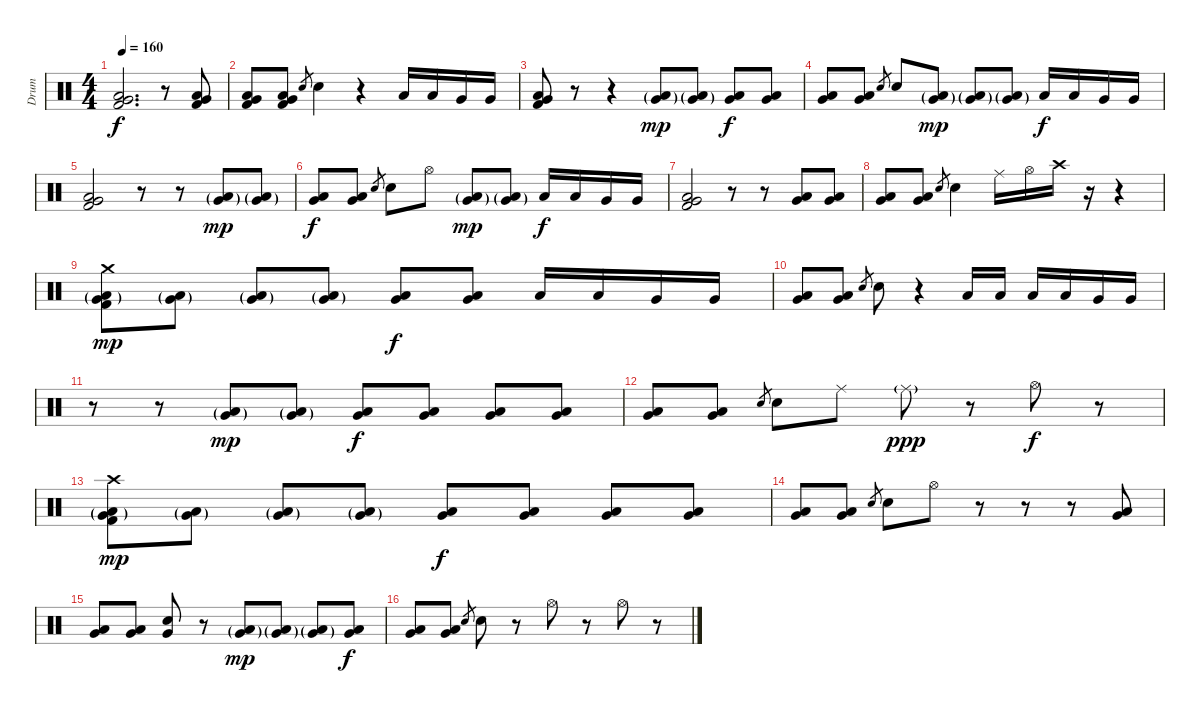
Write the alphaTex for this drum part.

\track ("Drum" "Drum") {instrument percussion}
\staff {score}
\articulation defaults
\ts (4 4)
\tempo 160
\clef neutral
\ks c
("Low Floor Tom (hit)" "Very Low Tom (hit)" "Kick (hit) 2").2{d dy f} r.8 ("Low Floor Tom (hit)" "Very Low Tom (hit)" "Kick (hit) 2").8 |
("Low Floor Tom (hit)" "Very Low Tom (hit)" "Kick (hit) 2").8 ("Low Floor Tom (hit)" "Very Low Tom (hit)" "Kick (hit) 2").8 "Electric Snare (hit)".8{gr} "Electric Snare (hit)".4 r.4 "Low Tom (hit)".16 "Low Tom (hit)".16 "Very Low Tom (hit)".16 "Very Low Tom (hit)".16 |
("Low Floor Tom (hit)" "Very Low Tom (hit)" "Kick (hit) 2").8 r.8 r.4 ("Low Tom (hit)"{g} "Very Low Tom (hit)"{g}).8{dy mp} ("Low Tom (hit)"{g} "Very Low Tom (hit)"{g}).8 ("Low Tom (hit)" "Very Low Tom (hit)").8{dy f} ("Low Tom (hit)" "Very Low Tom (hit)").8 |
("Low Tom (hit)" "Very Low Tom (hit)").8 ("Low Tom (hit)" "Very Low Tom (hit)").8 "Electric Snare (hit)".8{gr} "Electric Snare (hit)".8 ("Low Tom (hit)"{g} "Very Low Tom (hit)"{g}).8{dy mp} ("Low Tom (hit)"{g} "Very Low Tom (hit)"{g}).8 ("Low Tom (hit)"{g} "Very Low Tom (hit)"{g}).8 "Low Tom (hit)".16{dy f} "Low Tom (hit)".16 "Very Low Tom (hit)".16 "Very Low Tom (hit)".16 |
("Low Floor Tom (hit)" "Very Low Tom (hit)" "Kick (hit) 2").2 r.8 r.8 ("Low Tom (hit)"{g} "Very Low Tom (hit)"{g}).8{dy mp} ("Low Tom (hit)"{g} "Very Low Tom (hit)"{g}).8 |
("Low Tom (hit)" "Very Low Tom (hit)").8{dy f} ("Low Tom (hit)" "Very Low Tom (hit)").8 "Electric Snare (hit)".8{gr} "Electric Snare (hit)".8 "Hi-Hat (open)".8 ("Low Tom (hit)"{g} "Very Low Tom (hit)"{g}).8{dy mp} ("Low Tom (hit)"{g} "Very Low Tom (hit)"{g}).8 "Low Tom (hit)".16{dy f} "Low Tom (hit)".16 "Very Low Tom (hit)".16 "Very Low Tom (hit)".16 |
("Low Floor Tom (hit)" "Very Low Tom (hit)" "Kick (hit) 2").2 r.8 r.8 ("Low Tom (hit)" "Very Low Tom (hit)").8 ("Low Tom (hit)" "Very Low Tom (hit)").8 |
("Low Tom (hit)" "Very Low Tom (hit)").8 ("Low Tom (hit)" "Very Low Tom (hit)").8 "Electric Snare (hit)".8{gr} "Electric Snare (hit)".4 "Ride (middle)".16 "Hi-Hat (open)".16 "Crash high (hit)".16 r.16 r.4 |
("Crash medium (hit)" "Low Tom (hit)"{g} "Very Low Tom (hit)"{g} "Kick (hit) 2").8{dy mp} ("Low Tom (hit)"{g} "Very Low Tom (hit)"{g}).8 ("Low Tom (hit)"{g} "Very Low Tom (hit)"{g}).8 ("Low Tom (hit)"{g} "Very Low Tom (hit)"{g}).8 ("Low Tom (hit)" "Very Low Tom (hit)").8{dy f} ("Low Tom (hit)" "Very Low Tom (hit)").8 "Low Tom (hit)".16 "Low Tom (hit)".16 "Very Low Tom (hit)".16 "Very Low Tom (hit)".16 |
("Low Tom (hit)" "Very Low Tom (hit)").8 ("Low Tom (hit)" "Very Low Tom (hit)").8 "Electric Snare (hit)".8{gr} "Electric Snare (hit)".8 r.4 "Low Tom (hit)".16 "Low Tom (hit)".16 "Low Tom (hit)".16 "Low Tom (hit)".16 "Very Low Tom (hit)".16 "Very Low Tom (hit)".16 |
r.8 r.8 ("Low Tom (hit)"{g} "Very Low Tom (hit)"{g}).8{dy mp} ("Low Tom (hit)"{g} "Very Low Tom (hit)"{g}).8 ("Low Tom (hit)" "Very Low Tom (hit)").8{dy f} ("Low Tom (hit)" "Very Low Tom (hit)").8 ("Low Tom (hit)" "Very Low Tom (hit)").8 ("Low Tom (hit)" "Very Low Tom (hit)").8 |
("Low Tom (hit)" "Very Low Tom (hit)").8 ("Low Tom (hit)" "Very Low Tom (hit)").8 "Electric Snare (hit)".8{gr} "Electric Snare (hit)".8 "Ride (middle)".8 "Ride (middle)"{g}.8{dy ppp} r.8 "Hi-Hat (open)".8{dy f} r.8 |
("Crash high (hit)" "Low Tom (hit)"{g} "Very Low Tom (hit)"{g} "Kick (hit) 2").8{dy mp} ("Low Tom (hit)"{g} "Very Low Tom (hit)"{g}).8 ("Low Tom (hit)"{g} "Very Low Tom (hit)"{g}).8 ("Low Tom (hit)"{g} "Very Low Tom (hit)"{g}).8 ("Low Tom (hit)" "Very Low Tom (hit)").8{dy f} ("Low Tom (hit)" "Very Low Tom (hit)").8 ("Low Tom (hit)" "Very Low Tom (hit)").8 ("Low Tom (hit)" "Very Low Tom (hit)").8 |
("Low Tom (hit)" "Very Low Tom (hit)").8 ("Low Tom (hit)" "Very Low Tom (hit)").8 "Electric Snare (hit)".8{gr} "Electric Snare (hit)".8 "Hi-Hat (open)".8 r.8 r.8 r.8 ("Low Tom (hit)" "Very Low Tom (hit)").8 |
("Low Tom (hit)" "Very Low Tom (hit)").8 ("Low Tom (hit)" "Very Low Tom (hit)").8 ("Very Low Tom (hit)" "Electric Snare (hit)").8 r.8 ("Low Tom (hit)"{g} "Very Low Tom (hit)"{g}).8{dy mp} ("Low Tom (hit)"{g} "Very Low Tom (hit)"{g}).8 ("Low Tom (hit)"{g} "Very Low Tom (hit)"{g}).8 ("Low Tom (hit)" "Very Low Tom (hit)").8{dy f} |
("Low Tom (hit)" "Very Low Tom (hit)").8 ("Low Tom (hit)" "Very Low Tom (hit)").8 "Electric Snare (hit)".8{gr} "Electric Snare (hit)".8 r.8 "Hi-Hat (open)".8 r.8 "Hi-Hat (open)".8 r.8
